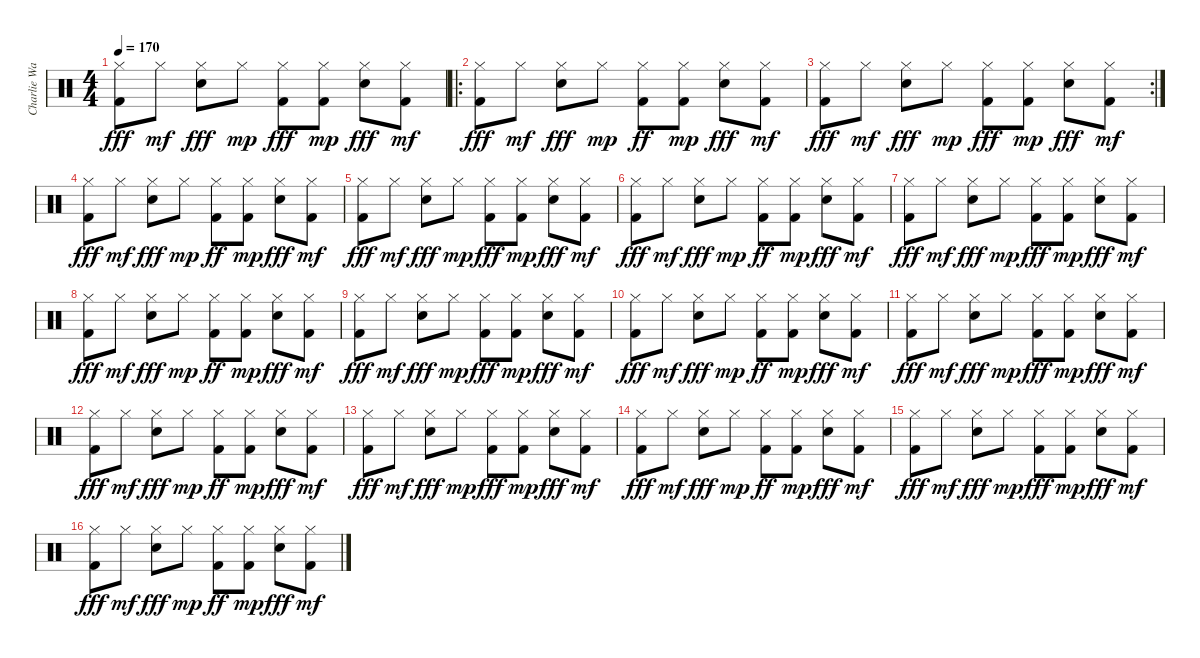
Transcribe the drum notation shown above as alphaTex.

\track ("Charlie Watts" "Charlie Wa") {instrument percussion}
\staff {score}
\articulation defaults
\ts (4 4)
\tempo 170
\clef neutral
\ks c
("Kick (hit) 2" "Hi-Hat (closed)").8{dy fff} "Hi-Hat (closed)".8{dy mf} ("Electric Snare (hit)" "Hi-Hat (closed)").8{dy fff} "Hi-Hat (closed)".8{dy mp} ("Kick (hit) 2" "Hi-Hat (closed)").8{dy fff} ("Kick (hit) 2" "Hi-Hat (closed)").8{dy mp} ("Electric Snare (hit)" "Hi-Hat (closed)").8{dy fff} ("Kick (hit) 2" "Hi-Hat (closed)").8{dy mf} |
\ro
("Kick (hit) 2" "Hi-Hat (closed)").8{dy fff} "Hi-Hat (closed)".8{dy mf} ("Electric Snare (hit)" "Hi-Hat (closed)").8{dy fff} "Hi-Hat (closed)".8{dy mp} ("Kick (hit) 2" "Hi-Hat (closed)").8{dy ff} ("Kick (hit) 2" "Hi-Hat (closed)").8{dy mp} ("Electric Snare (hit)" "Hi-Hat (closed)").8{dy fff} ("Kick (hit) 2" "Hi-Hat (closed)").8{dy mf} |
\rc 2
("Kick (hit) 2" "Hi-Hat (closed)").8{dy fff} "Hi-Hat (closed)".8{dy mf} ("Electric Snare (hit)" "Hi-Hat (closed)").8{dy fff} "Hi-Hat (closed)".8{dy mp} ("Kick (hit) 2" "Hi-Hat (closed)").8{dy fff} ("Kick (hit) 2" "Hi-Hat (closed)").8{dy mp} ("Electric Snare (hit)" "Hi-Hat (closed)").8{dy fff} ("Kick (hit) 2" "Hi-Hat (closed)").8{dy mf} |
("Kick (hit) 2" "Hi-Hat (closed)").8{dy fff} "Hi-Hat (closed)".8{dy mf} ("Electric Snare (hit)" "Hi-Hat (closed)").8{dy fff} "Hi-Hat (closed)".8{dy mp} ("Kick (hit) 2" "Hi-Hat (closed)").8{dy ff} ("Kick (hit) 2" "Hi-Hat (closed)").8{dy mp} ("Electric Snare (hit)" "Hi-Hat (closed)").8{dy fff} ("Kick (hit) 2" "Hi-Hat (closed)").8{dy mf} |
("Kick (hit) 2" "Hi-Hat (closed)").8{dy fff} "Hi-Hat (closed)".8{dy mf} ("Electric Snare (hit)" "Hi-Hat (closed)").8{dy fff} "Hi-Hat (closed)".8{dy mp} ("Kick (hit) 2" "Hi-Hat (closed)").8{dy fff} ("Kick (hit) 2" "Hi-Hat (closed)").8{dy mp} ("Electric Snare (hit)" "Hi-Hat (closed)").8{dy fff} ("Kick (hit) 2" "Hi-Hat (closed)").8{dy mf} |
("Kick (hit) 2" "Hi-Hat (closed)").8{dy fff} "Hi-Hat (closed)".8{dy mf} ("Electric Snare (hit)" "Hi-Hat (closed)").8{dy fff} "Hi-Hat (closed)".8{dy mp} ("Kick (hit) 2" "Hi-Hat (closed)").8{dy ff} ("Kick (hit) 2" "Hi-Hat (closed)").8{dy mp} ("Electric Snare (hit)" "Hi-Hat (closed)").8{dy fff} ("Kick (hit) 2" "Hi-Hat (closed)").8{dy mf} |
("Kick (hit) 2" "Hi-Hat (closed)").8{dy fff} "Hi-Hat (closed)".8{dy mf} ("Electric Snare (hit)" "Hi-Hat (closed)").8{dy fff} "Hi-Hat (closed)".8{dy mp} ("Kick (hit) 2" "Hi-Hat (closed)").8{dy fff} ("Kick (hit) 2" "Hi-Hat (closed)").8{dy mp} ("Electric Snare (hit)" "Hi-Hat (closed)").8{dy fff} ("Kick (hit) 2" "Hi-Hat (closed)").8{dy mf} |
("Kick (hit) 2" "Hi-Hat (closed)").8{dy fff} "Hi-Hat (closed)".8{dy mf} ("Electric Snare (hit)" "Hi-Hat (closed)").8{dy fff} "Hi-Hat (closed)".8{dy mp} ("Kick (hit) 2" "Hi-Hat (closed)").8{dy ff} ("Kick (hit) 2" "Hi-Hat (closed)").8{dy mp} ("Electric Snare (hit)" "Hi-Hat (closed)").8{dy fff} ("Kick (hit) 2" "Hi-Hat (closed)").8{dy mf} |
("Kick (hit) 2" "Hi-Hat (closed)").8{dy fff} "Hi-Hat (closed)".8{dy mf} ("Electric Snare (hit)" "Hi-Hat (closed)").8{dy fff} "Hi-Hat (closed)".8{dy mp} ("Kick (hit) 2" "Hi-Hat (closed)").8{dy fff} ("Kick (hit) 2" "Hi-Hat (closed)").8{dy mp} ("Electric Snare (hit)" "Hi-Hat (closed)").8{dy fff} ("Kick (hit) 2" "Hi-Hat (closed)").8{dy mf} |
("Kick (hit) 2" "Hi-Hat (closed)").8{dy fff} "Hi-Hat (closed)".8{dy mf} ("Electric Snare (hit)" "Hi-Hat (closed)").8{dy fff} "Hi-Hat (closed)".8{dy mp} ("Kick (hit) 2" "Hi-Hat (closed)").8{dy ff} ("Kick (hit) 2" "Hi-Hat (closed)").8{dy mp} ("Electric Snare (hit)" "Hi-Hat (closed)").8{dy fff} ("Kick (hit) 2" "Hi-Hat (closed)").8{dy mf} |
("Kick (hit) 2" "Hi-Hat (closed)").8{dy fff} "Hi-Hat (closed)".8{dy mf} ("Electric Snare (hit)" "Hi-Hat (closed)").8{dy fff} "Hi-Hat (closed)".8{dy mp} ("Kick (hit) 2" "Hi-Hat (closed)").8{dy fff} ("Kick (hit) 2" "Hi-Hat (closed)").8{dy mp} ("Electric Snare (hit)" "Hi-Hat (closed)").8{dy fff} ("Kick (hit) 2" "Hi-Hat (closed)").8{dy mf} |
("Kick (hit) 2" "Hi-Hat (closed)").8{dy fff} "Hi-Hat (closed)".8{dy mf} ("Electric Snare (hit)" "Hi-Hat (closed)").8{dy fff} "Hi-Hat (closed)".8{dy mp} ("Kick (hit) 2" "Hi-Hat (closed)").8{dy ff} ("Kick (hit) 2" "Hi-Hat (closed)").8{dy mp} ("Electric Snare (hit)" "Hi-Hat (closed)").8{dy fff} ("Kick (hit) 2" "Hi-Hat (closed)").8{dy mf} |
("Kick (hit) 2" "Hi-Hat (closed)").8{dy fff} "Hi-Hat (closed)".8{dy mf} ("Electric Snare (hit)" "Hi-Hat (closed)").8{dy fff} "Hi-Hat (closed)".8{dy mp} ("Kick (hit) 2" "Hi-Hat (closed)").8{dy fff} ("Kick (hit) 2" "Hi-Hat (closed)").8{dy mp} ("Electric Snare (hit)" "Hi-Hat (closed)").8{dy fff} ("Kick (hit) 2" "Hi-Hat (closed)").8{dy mf} |
("Kick (hit) 2" "Hi-Hat (closed)").8{dy fff} "Hi-Hat (closed)".8{dy mf} ("Electric Snare (hit)" "Hi-Hat (closed)").8{dy fff} "Hi-Hat (closed)".8{dy mp} ("Kick (hit) 2" "Hi-Hat (closed)").8{dy ff} ("Kick (hit) 2" "Hi-Hat (closed)").8{dy mp} ("Electric Snare (hit)" "Hi-Hat (closed)").8{dy fff} ("Kick (hit) 2" "Hi-Hat (closed)").8{dy mf} |
("Kick (hit) 2" "Hi-Hat (closed)").8{dy fff} "Hi-Hat (closed)".8{dy mf} ("Electric Snare (hit)" "Hi-Hat (closed)").8{dy fff} "Hi-Hat (closed)".8{dy mp} ("Kick (hit) 2" "Hi-Hat (closed)").8{dy fff} ("Kick (hit) 2" "Hi-Hat (closed)").8{dy mp} ("Electric Snare (hit)" "Hi-Hat (closed)").8{dy fff} ("Kick (hit) 2" "Hi-Hat (closed)").8{dy mf} |
("Kick (hit) 2" "Hi-Hat (closed)").8{dy fff} "Hi-Hat (closed)".8{dy mf} ("Electric Snare (hit)" "Hi-Hat (closed)").8{dy fff} "Hi-Hat (closed)".8{dy mp} ("Kick (hit) 2" "Hi-Hat (closed)").8{dy ff} ("Kick (hit) 2" "Hi-Hat (closed)").8{dy mp} ("Electric Snare (hit)" "Hi-Hat (closed)").8{dy fff} ("Kick (hit) 2" "Hi-Hat (closed)").8{dy mf}
